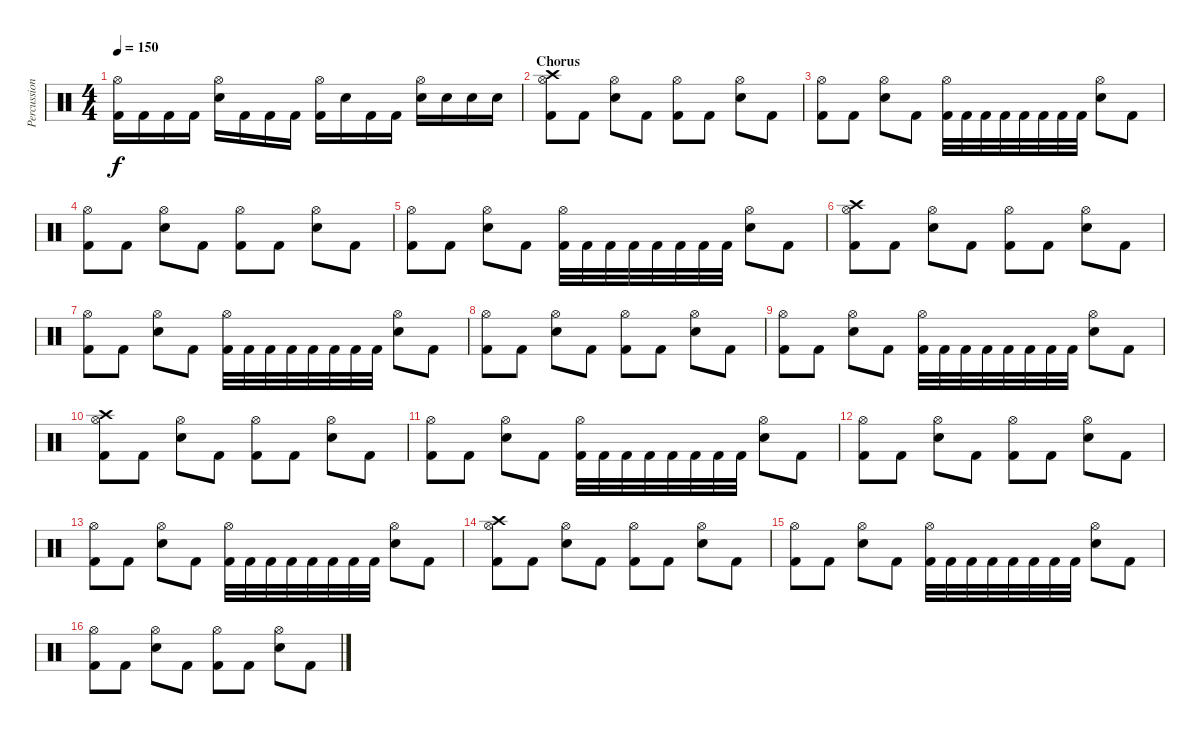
\track ("Percussions" "Percussion") {instrument percussion}
\staff {score}
\articulation defaults
\ts (4 4)
\tempo 150
\clef neutral
\ks c
("Hi-Hat (open)" "Kick (hit) 2").16{dy f} "Kick (hit) 2".16 "Kick (hit) 2".16 "Kick (hit) 2".16 ("Hi-Hat (open)" "Electric Snare (hit)").16 "Kick (hit) 2".16 "Kick (hit) 2".16 "Kick (hit) 2".16 ("Hi-Hat (open)" "Kick (hit) 2").16 "Electric Snare (hit)".16 "Kick (hit) 2".16 "Kick (hit) 2".16 ("Hi-Hat (open)" "Electric Snare (hit)").16 "Electric Snare (hit)".16 "Electric Snare (hit)".16 "Electric Snare (hit)".16 |
\section ("" "Chorus")
("Crash high (hit)" "Hi-Hat (open)" "Kick (hit) 2").8 "Kick (hit) 2".8 ("Hi-Hat (open)" "Electric Snare (hit)").8 "Kick (hit) 2".8 ("Hi-Hat (open)" "Kick (hit) 2").8 "Kick (hit) 2".8 ("Hi-Hat (open)" "Electric Snare (hit)").8 "Kick (hit) 2".8 |
("Hi-Hat (open)" "Kick (hit) 2").8 "Kick (hit) 2".8 ("Hi-Hat (open)" "Electric Snare (hit)").8 "Kick (hit) 2".8 ("Hi-Hat (open)" "Kick (hit) 2").32 "Kick (hit) 2".32 "Kick (hit) 2".32 "Kick (hit) 2".32 "Kick (hit) 2".32 "Kick (hit) 2".32 "Kick (hit) 2".32 "Kick (hit) 2".32 ("Hi-Hat (open)" "Electric Snare (hit)").8 "Kick (hit) 2".8 |
("Hi-Hat (open)" "Kick (hit) 2").8 "Kick (hit) 2".8 ("Hi-Hat (open)" "Electric Snare (hit)").8 "Kick (hit) 2".8 ("Hi-Hat (open)" "Kick (hit) 2").8 "Kick (hit) 2".8 ("Hi-Hat (open)" "Electric Snare (hit)").8 "Kick (hit) 2".8 |
("Hi-Hat (open)" "Kick (hit) 2").8 "Kick (hit) 2".8 ("Hi-Hat (open)" "Electric Snare (hit)").8 "Kick (hit) 2".8 ("Hi-Hat (open)" "Kick (hit) 2").32 "Kick (hit) 2".32 "Kick (hit) 2".32 "Kick (hit) 2".32 "Kick (hit) 2".32 "Kick (hit) 2".32 "Kick (hit) 2".32 "Kick (hit) 2".32 ("Hi-Hat (open)" "Electric Snare (hit)").8 "Kick (hit) 2".8 |
("Crash high (hit)" "Hi-Hat (open)" "Kick (hit) 2").8 "Kick (hit) 2".8 ("Hi-Hat (open)" "Electric Snare (hit)").8 "Kick (hit) 2".8 ("Hi-Hat (open)" "Kick (hit) 2").8 "Kick (hit) 2".8 ("Hi-Hat (open)" "Electric Snare (hit)").8 "Kick (hit) 2".8 |
("Hi-Hat (open)" "Kick (hit) 2").8 "Kick (hit) 2".8 ("Hi-Hat (open)" "Electric Snare (hit)").8 "Kick (hit) 2".8 ("Hi-Hat (open)" "Kick (hit) 2").32 "Kick (hit) 2".32 "Kick (hit) 2".32 "Kick (hit) 2".32 "Kick (hit) 2".32 "Kick (hit) 2".32 "Kick (hit) 2".32 "Kick (hit) 2".32 ("Hi-Hat (open)" "Electric Snare (hit)").8 "Kick (hit) 2".8 |
("Hi-Hat (open)" "Kick (hit) 2").8 "Kick (hit) 2".8 ("Hi-Hat (open)" "Electric Snare (hit)").8 "Kick (hit) 2".8 ("Hi-Hat (open)" "Kick (hit) 2").8 "Kick (hit) 2".8 ("Hi-Hat (open)" "Electric Snare (hit)").8 "Kick (hit) 2".8 |
("Hi-Hat (open)" "Kick (hit) 2").8 "Kick (hit) 2".8 ("Hi-Hat (open)" "Electric Snare (hit)").8 "Kick (hit) 2".8 ("Hi-Hat (open)" "Kick (hit) 2").32 "Kick (hit) 2".32 "Kick (hit) 2".32 "Kick (hit) 2".32 "Kick (hit) 2".32 "Kick (hit) 2".32 "Kick (hit) 2".32 "Kick (hit) 2".32 ("Hi-Hat (open)" "Electric Snare (hit)").8 "Kick (hit) 2".8 |
("Crash high (hit)" "Hi-Hat (open)" "Kick (hit) 2").8 "Kick (hit) 2".8 ("Hi-Hat (open)" "Electric Snare (hit)").8 "Kick (hit) 2".8 ("Hi-Hat (open)" "Kick (hit) 2").8 "Kick (hit) 2".8 ("Hi-Hat (open)" "Electric Snare (hit)").8 "Kick (hit) 2".8 |
("Hi-Hat (open)" "Kick (hit) 2").8 "Kick (hit) 2".8 ("Hi-Hat (open)" "Electric Snare (hit)").8 "Kick (hit) 2".8 ("Hi-Hat (open)" "Kick (hit) 2").32 "Kick (hit) 2".32 "Kick (hit) 2".32 "Kick (hit) 2".32 "Kick (hit) 2".32 "Kick (hit) 2".32 "Kick (hit) 2".32 "Kick (hit) 2".32 ("Hi-Hat (open)" "Electric Snare (hit)").8 "Kick (hit) 2".8 |
("Hi-Hat (open)" "Kick (hit) 2").8 "Kick (hit) 2".8 ("Hi-Hat (open)" "Electric Snare (hit)").8 "Kick (hit) 2".8 ("Hi-Hat (open)" "Kick (hit) 2").8 "Kick (hit) 2".8 ("Hi-Hat (open)" "Electric Snare (hit)").8 "Kick (hit) 2".8 |
("Hi-Hat (open)" "Kick (hit) 2").8 "Kick (hit) 2".8 ("Hi-Hat (open)" "Electric Snare (hit)").8 "Kick (hit) 2".8 ("Hi-Hat (open)" "Kick (hit) 2").32 "Kick (hit) 2".32 "Kick (hit) 2".32 "Kick (hit) 2".32 "Kick (hit) 2".32 "Kick (hit) 2".32 "Kick (hit) 2".32 "Kick (hit) 2".32 ("Hi-Hat (open)" "Electric Snare (hit)").8 "Kick (hit) 2".8 |
("Crash high (hit)" "Hi-Hat (open)" "Kick (hit) 2").8 "Kick (hit) 2".8 ("Hi-Hat (open)" "Electric Snare (hit)").8 "Kick (hit) 2".8 ("Hi-Hat (open)" "Kick (hit) 2").8 "Kick (hit) 2".8 ("Hi-Hat (open)" "Electric Snare (hit)").8 "Kick (hit) 2".8 |
("Hi-Hat (open)" "Kick (hit) 2").8 "Kick (hit) 2".8 ("Hi-Hat (open)" "Electric Snare (hit)").8 "Kick (hit) 2".8 ("Hi-Hat (open)" "Kick (hit) 2").32 "Kick (hit) 2".32 "Kick (hit) 2".32 "Kick (hit) 2".32 "Kick (hit) 2".32 "Kick (hit) 2".32 "Kick (hit) 2".32 "Kick (hit) 2".32 ("Hi-Hat (open)" "Electric Snare (hit)").8 "Kick (hit) 2".8 |
("Hi-Hat (open)" "Kick (hit) 2").8 "Kick (hit) 2".8 ("Hi-Hat (open)" "Electric Snare (hit)").8 "Kick (hit) 2".8 ("Hi-Hat (open)" "Kick (hit) 2").8 "Kick (hit) 2".8 ("Hi-Hat (open)" "Electric Snare (hit)").8 "Kick (hit) 2".8
